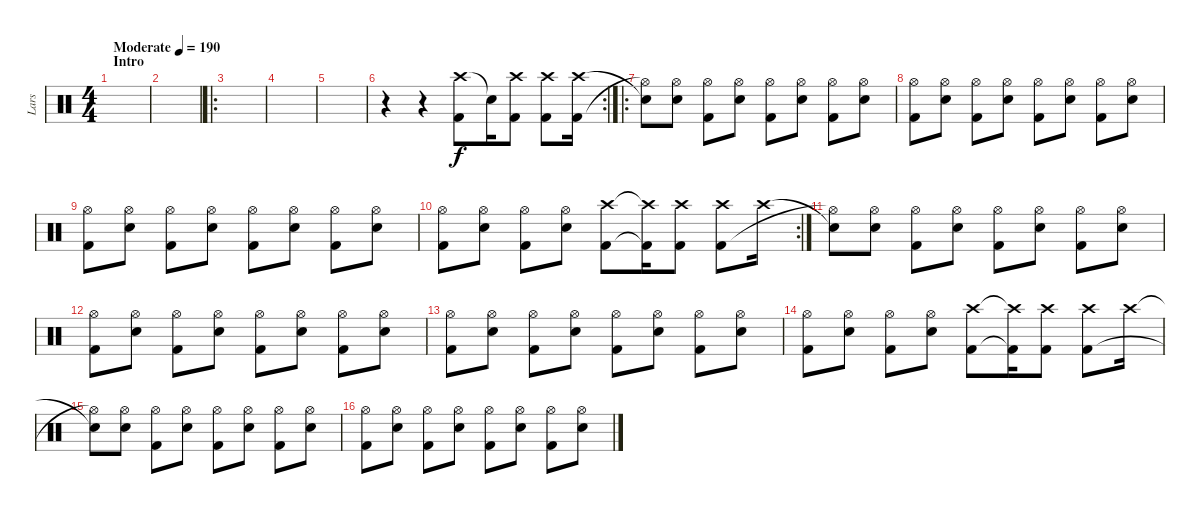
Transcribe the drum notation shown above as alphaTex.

\track ("Lars" "Lars") {instrument percussion}
\staff {score}
\articulation defaults
\ts (4 4)
\section ("" "Intro")
\tempo (190 "Moderate")
\clef neutral
\ks c
|
|
\ro
|
|
|
\rc 2
r.4 r.4 ("Crash high (hit)" "Kick (hit) 2").8 "Snare (hit)"{t}.16 ("Crash high (hit)" "Kick (hit) 2").8 ("Crash high (hit)" "Kick (hit) 2").8 ("Crash high (hit)" "Kick (hit) 2").16 |
\ro
("Snare (hit)"{t} "Hi-Hat (open)"{t}).8 ("Hi-Hat (open)" "Snare (hit) 2").8 ("Hi-Hat (open)" "Kick (hit) 2").8 ("Hi-Hat (open)" "Snare (hit) 2").8 ("Hi-Hat (open)" "Kick (hit) 2").8 ("Hi-Hat (open)" "Snare (hit) 2").8 ("Hi-Hat (open)" "Kick (hit) 2").8 ("Hi-Hat (open)" "Snare (hit) 2").8 |
("Hi-Hat (open)" "Kick (hit) 2").8 ("Hi-Hat (open)" "Snare (hit) 2").8 ("Hi-Hat (open)" "Kick (hit) 2").8 ("Hi-Hat (open)" "Snare (hit) 2").8 ("Hi-Hat (open)" "Kick (hit) 2").8 ("Hi-Hat (open)" "Snare (hit) 2").8 ("Hi-Hat (open)" "Kick (hit) 2").8 ("Hi-Hat (open)" "Snare (hit) 2").8 |
("Hi-Hat (open)" "Kick (hit) 2").8 ("Hi-Hat (open)" "Snare (hit) 2").8 ("Hi-Hat (open)" "Kick (hit) 2").8 ("Hi-Hat (open)" "Snare (hit) 2").8 ("Hi-Hat (open)" "Kick (hit) 2").8 ("Hi-Hat (open)" "Snare (hit) 2").8 ("Hi-Hat (open)" "Kick (hit) 2").8 ("Hi-Hat (open)" "Snare (hit) 2").8 |
\rc 2
("Hi-Hat (open)" "Kick (hit) 2").8 ("Hi-Hat (open)" "Snare (hit) 2").8 ("Hi-Hat (open)" "Kick (hit) 2").8 ("Hi-Hat (open)" "Snare (hit) 2").8 ("Crash high (hit)" "Kick (hit) 2").8 ("Crash high (hit)"{t} "Kick (hit) 2"{t}).16 ("Crash high (hit)" "Kick (hit) 2").8 ("Crash high (hit)" "Kick (hit) 2").8 "Crash high (hit)".16 |
("Snare (hit)"{t} "Hi-Hat (open)"{t}).8 ("Hi-Hat (open)" "Snare (hit) 2").8 ("Hi-Hat (open)" "Kick (hit) 2").8 ("Hi-Hat (open)" "Snare (hit) 2").8 ("Hi-Hat (open)" "Kick (hit) 2").8 ("Hi-Hat (open)" "Snare (hit) 2").8 ("Hi-Hat (open)" "Kick (hit) 2").8 ("Hi-Hat (open)" "Snare (hit) 2").8 |
("Hi-Hat (open)" "Kick (hit) 2").8 ("Hi-Hat (open)" "Snare (hit) 2").8 ("Hi-Hat (open)" "Kick (hit) 2").8 ("Hi-Hat (open)" "Snare (hit) 2").8 ("Hi-Hat (open)" "Kick (hit) 2").8 ("Hi-Hat (open)" "Snare (hit) 2").8 ("Hi-Hat (open)" "Kick (hit) 2").8 ("Hi-Hat (open)" "Snare (hit) 2").8 |
("Hi-Hat (open)" "Kick (hit) 2").8 ("Hi-Hat (open)" "Snare (hit) 2").8 ("Hi-Hat (open)" "Kick (hit) 2").8 ("Hi-Hat (open)" "Snare (hit) 2").8 ("Hi-Hat (open)" "Kick (hit) 2").8 ("Hi-Hat (open)" "Snare (hit) 2").8 ("Hi-Hat (open)" "Kick (hit) 2").8 ("Hi-Hat (open)" "Snare (hit) 2").8 |
("Hi-Hat (open)" "Kick (hit) 2").8 ("Hi-Hat (open)" "Snare (hit) 2").8 ("Hi-Hat (open)" "Kick (hit) 2").8 ("Hi-Hat (open)" "Snare (hit) 2").8 ("Crash high (hit)" "Kick (hit) 2").8 ("Crash high (hit)"{t} "Kick (hit) 2"{t}).16 ("Crash high (hit)" "Kick (hit) 2").8 ("Crash high (hit)" "Kick (hit) 2").8 "Crash high (hit)".16 |
("Snare (hit)"{t} "Hi-Hat (open)"{t}).8 ("Hi-Hat (open)" "Snare (hit) 2").8 ("Hi-Hat (open)" "Kick (hit) 2").8 ("Hi-Hat (open)" "Snare (hit) 2").8 ("Hi-Hat (open)" "Kick (hit) 2").8 ("Hi-Hat (open)" "Snare (hit) 2").8 ("Hi-Hat (open)" "Kick (hit) 2").8 ("Hi-Hat (open)" "Snare (hit) 2").8 |
("Hi-Hat (open)" "Kick (hit) 2").8 ("Hi-Hat (open)" "Snare (hit) 2").8 ("Hi-Hat (open)" "Kick (hit) 2").8 ("Hi-Hat (open)" "Snare (hit) 2").8 ("Hi-Hat (open)" "Kick (hit) 2").8 ("Hi-Hat (open)" "Snare (hit) 2").8 ("Hi-Hat (open)" "Kick (hit) 2").8 ("Hi-Hat (open)" "Snare (hit) 2").8
